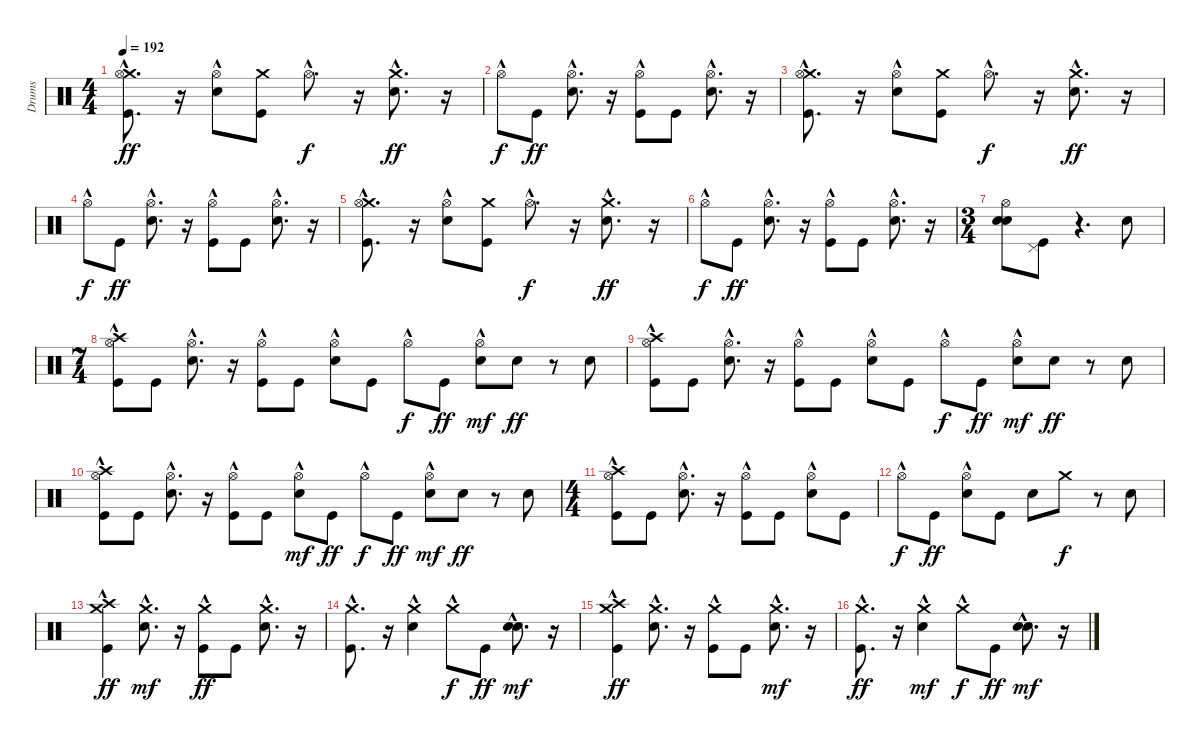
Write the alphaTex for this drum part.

\track ("Drums" "Drums") {instrument percussion}
\staff {score}
\articulation defaults
\ts (4 4)
\tempo 192
\clef neutral
\ks c
("Crash medium (hit)"{hac} "Hi-Hat (open)"{hac} "Kick (hit)"{hac}).8{d dy ff} r.16 ("Hi-Hat (open)"{hac} "Electric Snare (hit)").8 ("Crash medium (hit)" "Kick (hit)").8 "Hi-Hat (open)"{hac}.8{d dy f} r.16 ("Crash medium (hit)"{hac} "Electric Snare (hit)"{hac}).8{d dy ff} r.16 |
"Hi-Hat (open)"{hac}.8{dy f} "Kick (hit)".8{dy ff} ("Hi-Hat (open)"{hac} "Electric Snare (hit)"{hac}).8{d} r.16 ("Kick (hit)" "Hi-Hat (open)"{hac}).8 "Kick (hit)".8 ("Hi-Hat (open)"{hac} "Electric Snare (hit)"{hac}).8{d} r.16 |
("Crash medium (hit)"{hac} "Hi-Hat (open)"{hac} "Kick (hit)"{hac}).8{d} r.16 ("Hi-Hat (open)"{hac} "Electric Snare (hit)").8 ("Kick (hit)" "Crash medium (hit)").8 "Hi-Hat (open)"{hac}.8{d dy f} r.16 ("Electric Snare (hit)"{hac} "Crash medium (hit)"{hac}).8{d dy ff} r.16 |
"Hi-Hat (open)"{hac}.8{dy f} "Kick (hit)".8{dy ff} ("Electric Snare (hit)"{hac} "Hi-Hat (open)"{hac}).8{d} r.16 ("Kick (hit)" "Hi-Hat (open)"{hac}).8 "Kick (hit)".8 ("Electric Snare (hit)"{hac} "Hi-Hat (open)"{hac}).8{d} r.16 |
("Crash medium (hit)"{hac} "Hi-Hat (open)"{hac} "Kick (hit)"{hac}).8{d} r.16 ("Electric Snare (hit)" "Hi-Hat (open)"{hac}).8 ("Crash medium (hit)" "Kick (hit)").8 "Hi-Hat (open)"{hac}.8{d dy f} r.16 ("Crash medium (hit)"{hac} "Electric Snare (hit)"{hac}).8{d dy ff} r.16 |
"Hi-Hat (open)"{hac}.8{dy f} "Kick (hit)".8{dy ff} ("Electric Snare (hit)"{hac} "Hi-Hat (open)"{hac}).8{d} r.16 ("Kick (hit)" "Hi-Hat (open)"{hac}).8 "Kick (hit)".8 ("Hi-Hat (open)"{hac} "Electric Snare (hit)"{hac}).8{d} r.16 |
\ts (3 4)
("Hi-Hat (open)" "Snare (hit) 2" "Electric Snare (hit)").8 ("Kick (hit)" "Pedal Hi-Hat (hit)").8 r.4{d} "Electric Snare (hit)".8 |
\ts (7 4)
("Crash high (hit)"{hac} "Hi-Hat (open)"{hac} "Kick (hit)").8 "Kick (hit)".8 ("Hi-Hat (open)"{hac} "Electric Snare (hit)"{hac}).8{d} r.16 ("Kick (hit)" "Hi-Hat (open)"{hac}).8 "Kick (hit)".8 ("Hi-Hat (open)"{hac} "Electric Snare (hit)").8 "Kick (hit)".8 "Hi-Hat (open)"{hac}.8{dy f} "Kick (hit)".8{dy ff} ("Electric Snare (hit)" "Hi-Hat (open)"{hac}).8{dy mf} "Electric Snare (hit)".8{dy ff} r.8 "Electric Snare (hit)".8 |
("Hi-Hat (open)"{hac} "Crash high (hit)"{hac} "Kick (hit)").8 "Kick (hit)".8 ("Hi-Hat (open)"{hac} "Electric Snare (hit)"{hac}).8{d} r.16 ("Kick (hit)" "Hi-Hat (open)"{hac}).8 "Kick (hit)".8 ("Hi-Hat (open)"{hac} "Electric Snare (hit)").8 "Kick (hit)".8 "Hi-Hat (open)"{hac}.8{dy f} "Kick (hit)".8{dy ff} ("Electric Snare (hit)" "Hi-Hat (open)"{hac}).8{dy mf} "Electric Snare (hit)".8{dy ff} r.8 "Electric Snare (hit)".8 |
("Hi-Hat (open)"{hac} "Crash high (hit)"{hac} "Kick (hit)").8 "Kick (hit)".8 ("Hi-Hat (open)"{hac} "Electric Snare (hit)"{hac}).8{d} r.16 ("Kick (hit)" "Hi-Hat (open)"{hac}).8 "Kick (hit)".8 ("Electric Snare (hit)" "Hi-Hat (open)"{hac}).8{dy mf} "Kick (hit)".8{dy ff} "Hi-Hat (open)"{hac}.8{dy f} "Kick (hit)".8{dy ff} ("Electric Snare (hit)" "Hi-Hat (open)"{hac}).8{dy mf} "Electric Snare (hit)".8{dy ff} r.8 "Electric Snare (hit)".8 |
\ts (4 4)
("Hi-Hat (open)"{hac} "Crash high (hit)"{hac} "Kick (hit)").8 "Kick (hit)".8 ("Hi-Hat (open)"{hac} "Electric Snare (hit)"{hac}).8{d} r.16 ("Kick (hit)" "Hi-Hat (open)"{hac}).8 "Kick (hit)".8 ("Hi-Hat (open)"{hac} "Electric Snare (hit)").8 "Kick (hit)".8 |
"Hi-Hat (open)"{hac}.8{dy f} "Kick (hit)".8{dy ff} ("Hi-Hat (open)"{hac} "Electric Snare (hit)").8 "Kick (hit)".8 "Electric Snare (hit)".8 "Crash medium (hit)".8{dy f} r.8 "Electric Snare (hit)".8 |
("Kick (hit)"{hac} "Crash medium (hit)"{hac} "Crash high (hit)"{hac}).4{dy ff} ("Electric Snare (hit)"{hac} "Crash medium (hit)"{hac}).8{d dy mf} r.16 ("Kick (hit)" "Crash medium (hit)"{hac}).8{dy ff} "Kick (hit)".8 ("Crash medium (hit)"{hac} "Electric Snare (hit)"{hac}).8{d} r.16 |
("Crash medium (hit)"{hac} "Kick (hit)"{hac}).8{d} r.16 ("Crash medium (hit)"{hac} "Electric Snare (hit)").4 "Crash medium (hit)"{hac}.8{dy f} "Kick (hit)".8{dy ff} ("Electric Snare (hit)"{hac} "Snare (hit) 2"{hac}).8{d dy mf} r.16 |
("Crash high (hit)"{hac} "Crash medium (hit)"{hac} "Kick (hit)"{hac}).4{dy ff} ("Crash medium (hit)"{hac} "Electric Snare (hit)"{hac}).8{d} r.16 ("Kick (hit)" "Crash medium (hit)"{hac}).8 "Kick (hit)".8 ("Electric Snare (hit)"{hac} "Crash medium (hit)"{hac}).8{d dy mf} r.16 |
("Crash medium (hit)"{hac} "Kick (hit)"{hac}).8{d dy ff} r.16 ("Electric Snare (hit)" "Crash medium (hit)"{hac}).4{dy mf} "Crash medium (hit)"{hac}.8{dy f} "Kick (hit)".8{dy ff} ("Electric Snare (hit)"{hac} "Snare (hit) 2"{hac}).8{d dy mf} r.16
